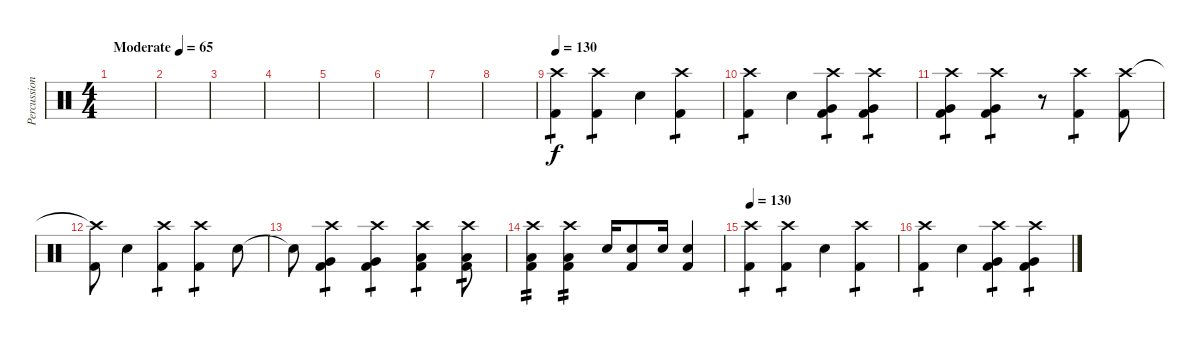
\track ("Percussion" "Percussion") {instrument percussion}
\staff {score}
\articulation defaults
\ts (4 4)
\tempo (65 "Moderate")
\clef neutral
\ks c
|
|
|
|
|
|
|
|
\tempo 130
("Crash high (hit)" "Kick (hit) 2").4{tp 1} ("Crash high (hit)" "Kick (hit) 2").4{tp 1} "Electric Snare (hit)".4 ("Crash high (hit)" "Kick (hit) 2").4{tp 1} |
("Crash high (hit)" "Kick (hit) 2").4{tp 1} "Electric Snare (hit)".4 ("Crash high (hit)" "Very Low Tom (hit)" "Kick (hit) 2").4{tp 1} ("Crash high (hit)" "Very Low Tom (hit)" "Kick (hit) 2").4{tp 1} |
("Crash high (hit)" "Very Low Tom (hit)" "Kick (hit) 2").4{tp 1} ("Crash high (hit)" "Very Low Tom (hit)" "Kick (hit) 2").4{tp 1} r.8 ("Crash high (hit)" "Kick (hit) 2").4{tp 1} ("Crash high (hit)" "Kick (hit) 2").8 |
("Crash high (hit)"{t} "Kick (hit) 2").8 "Electric Snare (hit)".4 ("Crash high (hit)" "Kick (hit) 2").4{tp 1} ("Crash high (hit)" "Kick (hit) 2").4{tp 1} "Electric Snare (hit)".8 |
"Snare (hit)"{t}.8 ("Crash high (hit)" "Very Low Tom (hit)" "Kick (hit) 2").4{tp 1} ("Crash high (hit)" "Very Low Tom (hit)" "Kick (hit) 2").4{tp 1} ("Crash high (hit)" "Low Tom (hit)" "Kick (hit) 2").4{tp 1} ("Crash high (hit)" "Low Tom (hit)" "Kick (hit) 2").8{tp 1} |
("Crash high (hit)" "Low Tom (hit)" "Kick (hit) 2").4{tp 2} ("Crash high (hit)" "Low Tom (hit)" "Kick (hit) 2").4{tp 2} "Electric Snare (hit)".16 ("Electric Snare (hit)" "Kick (hit) 2").8 "Electric Snare (hit)".16 ("Electric Snare (hit)" "Kick (hit) 2").4 |
\tempo 130
("Crash high (hit)" "Kick (hit) 2").4{tp 1} ("Crash high (hit)" "Kick (hit) 2").4{tp 1} "Electric Snare (hit)".4 ("Crash high (hit)" "Kick (hit) 2").4{tp 1} |
("Crash high (hit)" "Kick (hit) 2").4{tp 1} "Electric Snare (hit)".4 ("Crash high (hit)" "Very Low Tom (hit)" "Kick (hit) 2").4{tp 1} ("Crash high (hit)" "Very Low Tom (hit)" "Kick (hit) 2").4{tp 1}
